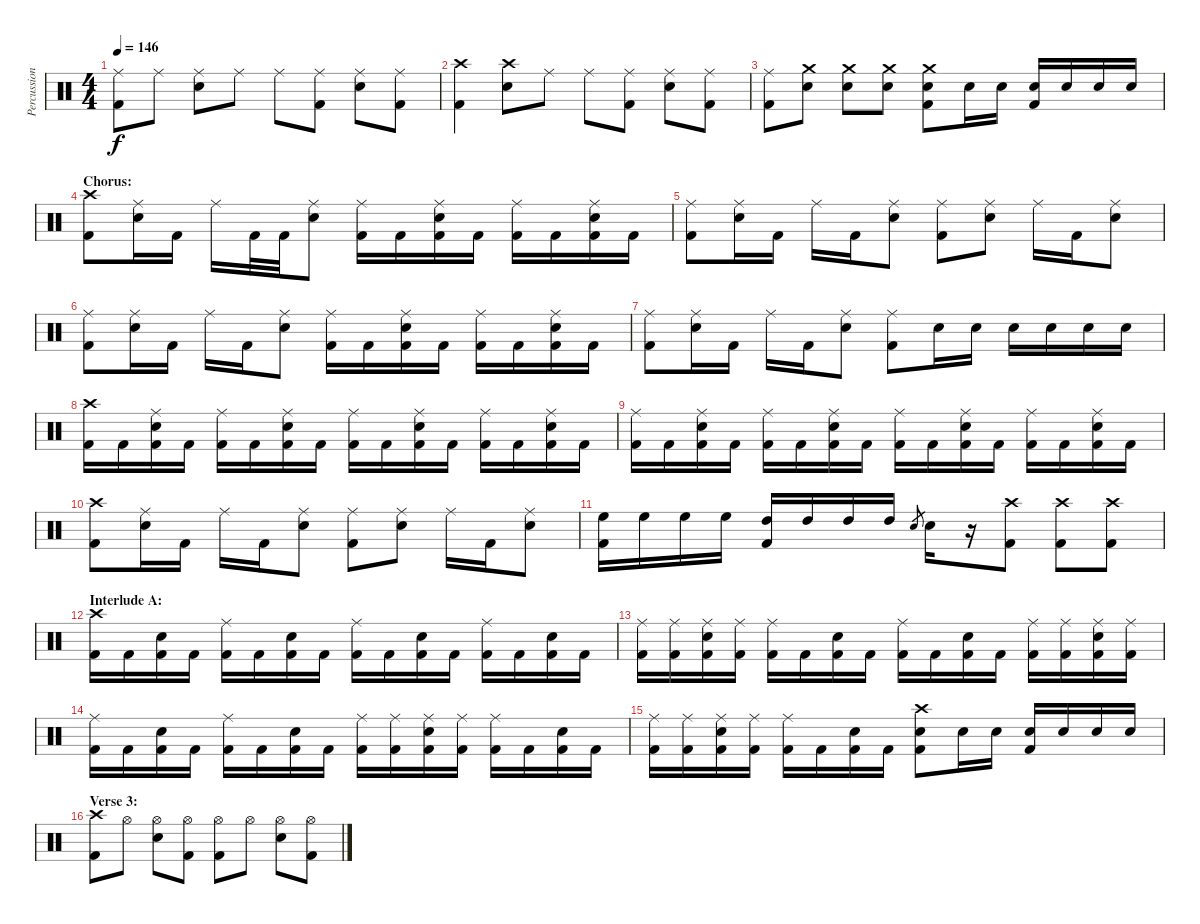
\track ("Percussion" "Percussion") {instrument percussion}
\staff {score}
\articulation defaults
\ts (4 4)
\tempo 146
\clef neutral
\ks c
("Ride (middle)" "Kick (hit) 2").8{dy f} "Ride (middle)".8 ("Ride (middle)" "Snare (hit) 2").8 "Ride (middle)".8 "Ride (middle)".8 ("Ride (middle)" "Kick (hit) 2").8 ("Ride (middle)" "Snare (hit) 2").8 ("Ride (middle)" "Kick (hit) 2").8 |
("Crash high (hit)" "Kick (hit) 2").4 ("Crash high (hit)" "Snare (hit) 2").8 "Ride (middle)".8 "Ride (middle)".8 ("Ride (middle)" "Kick (hit) 2").8 ("Ride (middle)" "Snare (hit) 2").8 ("Ride (middle)" "Kick (hit) 2").8 |
("Ride (middle)" "Kick (hit) 2").8 ("Crash medium (hit)" "Snare (hit) 2").8 ("Crash medium (hit)" "Snare (hit) 2").8 ("Crash medium (hit)" "Snare (hit) 2").8 ("Crash medium (hit)" "Snare (hit) 2" "Kick (hit) 2").8 "Snare (hit) 2".16 "Snare (hit) 2".16 ("Snare (hit) 2" "Kick (hit) 2").16 "Snare (hit) 2".16 "Snare (hit) 2".16 "Snare (hit) 2".16 |
\section ("" "Chorus:")
("Crash high (hit)" "Kick (hit) 2").8 ("Ride (middle)" "Snare (hit) 2").16 "Kick (hit) 2".16 "Ride (middle)".16 "Kick (hit) 2".32 "Kick (hit) 2".32 ("Ride (middle)" "Snare (hit) 2").8 ("Ride (middle)" "Kick (hit) 2").16 "Kick (hit) 2".16 ("Ride (middle)" "Snare (hit) 2" "Kick (hit) 2").16 "Kick (hit) 2".16 ("Ride (middle)" "Kick (hit) 2").16 "Kick (hit) 2".16 ("Ride (middle)" "Snare (hit) 2" "Kick (hit) 2").16 "Kick (hit) 2".16 |
("Ride (middle)" "Kick (hit) 2").8 ("Ride (middle)" "Snare (hit) 2").16 "Kick (hit) 2".16 "Ride (middle)".16 "Kick (hit) 2".16 ("Ride (middle)" "Snare (hit) 2").8 ("Ride (middle)" "Kick (hit) 2").8 ("Ride (middle)" "Snare (hit) 2").8 "Ride (middle)".16 "Kick (hit) 2".16 ("Ride (middle)" "Snare (hit) 2").8 |
("Ride (middle)" "Kick (hit) 2").8 ("Ride (middle)" "Snare (hit) 2").16 "Kick (hit) 2".16 "Ride (middle)".16 "Kick (hit) 2".16 ("Ride (middle)" "Snare (hit) 2").8 ("Ride (middle)" "Kick (hit) 2").16 "Kick (hit) 2".16 ("Ride (middle)" "Snare (hit) 2" "Kick (hit) 2").16 "Kick (hit) 2".16 ("Ride (middle)" "Kick (hit) 2").16 "Kick (hit) 2".16 ("Ride (middle)" "Snare (hit) 2" "Kick (hit) 2").16 "Kick (hit) 2".16 |
("Ride (middle)" "Kick (hit) 2").8 ("Ride (middle)" "Snare (hit) 2").16 "Kick (hit) 2".16 "Ride (middle)".16 "Kick (hit) 2".16 ("Ride (middle)" "Snare (hit) 2").8 ("Ride (middle)" "Kick (hit) 2").8 "Snare (hit) 2".16 "Snare (hit) 2".16 "Snare (hit) 2".16 "Snare (hit) 2".16 "Snare (hit) 2".16 "Snare (hit) 2".16 |
("Crash high (hit)" "Kick (hit) 2").16 "Kick (hit) 2".16 ("Ride (middle)" "Snare (hit) 2" "Kick (hit) 2").16 "Kick (hit) 2".16 ("Ride (middle)" "Kick (hit) 2").16 "Kick (hit) 2".16 ("Ride (middle)" "Snare (hit) 2" "Kick (hit) 2").16 "Kick (hit) 2".16 ("Ride (middle)" "Kick (hit) 2").16 "Kick (hit) 2".16 ("Ride (middle)" "Snare (hit) 2" "Kick (hit) 2").16 "Kick (hit) 2".16 ("Ride (middle)" "Kick (hit) 2").16 "Kick (hit) 2".16 ("Ride (middle)" "Snare (hit) 2" "Kick (hit) 2").16 "Kick (hit) 2".16 |
("Ride (middle)" "Kick (hit) 2").16 "Kick (hit) 2".16 ("Ride (middle)" "Snare (hit) 2" "Kick (hit) 2").16 "Kick (hit) 2".16 ("Ride (middle)" "Kick (hit) 2").16 "Kick (hit) 2".16 ("Ride (middle)" "Snare (hit) 2" "Kick (hit) 2").16 "Kick (hit) 2".16 ("Ride (middle)" "Kick (hit) 2").16 "Kick (hit) 2".16 ("Ride (middle)" "Snare (hit) 2" "Kick (hit) 2").16 "Kick (hit) 2".16 ("Ride (middle)" "Kick (hit) 2").16 "Kick (hit) 2".16 ("Ride (middle)" "Snare (hit) 2" "Kick (hit) 2").16 "Kick (hit) 2".16 |
("Crash high (hit)" "Kick (hit) 2").8 ("Ride (middle)" "Snare (hit) 2").16 "Kick (hit) 2".16 "Ride (middle)".16 "Kick (hit) 2".16 ("Ride (middle)" "Snare (hit) 2").8 ("Ride (middle)" "Kick (hit) 2").8 ("Ride (middle)" "Snare (hit) 2").8 "Ride (middle)".16 "Kick (hit) 2".16 ("Ride (middle)" "Snare (hit) 2").8 |
("High Floor Tom (hit)" "Kick (hit) 2").16 "High Floor Tom (hit)".16 "High Floor Tom (hit)".16 "High Floor Tom (hit)".16 ("High Tom (hit)" "Kick (hit) 2").16 "High Tom (hit)".16 "High Tom (hit)".16 "High Tom (hit)".16 "Snare (hit) 2".8{gr} "Snare (hit) 2".16 r.16 ("Crash high (hit)" "Kick (hit) 2").8 ("Crash high (hit)" "Kick (hit) 2").8 ("Crash high (hit)" "Kick (hit) 2").8 |
\section ("" "Interlude A:")
("Crash high (hit)" "Kick (hit) 2").16 "Kick (hit) 2".16 ("Snare (hit) 2" "Kick (hit) 2").16 "Kick (hit) 2".16 ("Ride (middle)" "Kick (hit) 2").16 "Kick (hit) 2".16 ("Snare (hit) 2" "Kick (hit) 2").16 "Kick (hit) 2".16 ("Ride (middle)" "Kick (hit) 2").16 "Kick (hit) 2".16 ("Snare (hit) 2" "Kick (hit) 2").16 "Kick (hit) 2".16 ("Ride (middle)" "Kick (hit) 2").16 "Kick (hit) 2".16 ("Snare (hit) 2" "Kick (hit) 2").16 "Kick (hit) 2".16 |
("Ride (middle)" "Kick (hit) 2").16 ("Ride (middle)" "Kick (hit) 2").16 ("Ride (middle)" "Snare (hit) 2" "Kick (hit) 2").16 ("Ride (middle)" "Kick (hit) 2").16 ("Ride (middle)" "Kick (hit) 2").16 "Kick (hit) 2".16 ("Snare (hit) 2" "Kick (hit) 2").16 "Kick (hit) 2".16 ("Ride (middle)" "Kick (hit) 2").16 "Kick (hit) 2".16 ("Snare (hit) 2" "Kick (hit) 2").16 "Kick (hit) 2".16 ("Ride (middle)" "Kick (hit) 2").16 ("Ride (middle)" "Kick (hit) 2").16 ("Ride (middle)" "Snare (hit) 2" "Kick (hit) 2").16 ("Ride (middle)" "Kick (hit) 2").16 |
("Ride (middle)" "Kick (hit) 2").16 "Kick (hit) 2".16 ("Snare (hit) 2" "Kick (hit) 2").16 "Kick (hit) 2".16 ("Ride (middle)" "Kick (hit) 2").16 "Kick (hit) 2".16 ("Snare (hit) 2" "Kick (hit) 2").16 "Kick (hit) 2".16 ("Ride (middle)" "Kick (hit) 2").16 ("Ride (middle)" "Kick (hit) 2").16 ("Ride (middle)" "Snare (hit) 2" "Kick (hit) 2").16 ("Ride (middle)" "Kick (hit) 2").16 ("Ride (middle)" "Kick (hit) 2").16 "Kick (hit) 2".16 ("Snare (hit) 2" "Kick (hit) 2").16 "Kick (hit) 2".16 |
("Ride (middle)" "Kick (hit) 2").16 ("Ride (middle)" "Kick (hit) 2").16 ("Ride (middle)" "Snare (hit) 2" "Kick (hit) 2").16 ("Ride (middle)" "Kick (hit) 2").16 ("Ride (middle)" "Kick (hit) 2").16 "Kick (hit) 2".16 ("Snare (hit) 2" "Kick (hit) 2").16 "Kick (hit) 2".16 ("Crash high (hit)" "Snare (hit) 2" "Kick (hit) 2").8 "Snare (hit) 2".16 "Snare (hit) 2".16 ("Snare (hit) 2" "Kick (hit) 2").16 "Snare (hit) 2".16 "Snare (hit) 2".16 "Snare (hit) 2".16 |
\section ("" "Verse 3:")
("Crash high (hit)" "Kick (hit) 2").8 "Hi-Hat (open)".8 ("Hi-Hat (open)" "Snare (hit) 2").8 ("Hi-Hat (open)" "Kick (hit) 2").8 ("Hi-Hat (open)" "Kick (hit) 2").8 "Hi-Hat (open)".8 ("Hi-Hat (open)" "Snare (hit) 2").8 ("Hi-Hat (open)" "Kick (hit) 2").8
